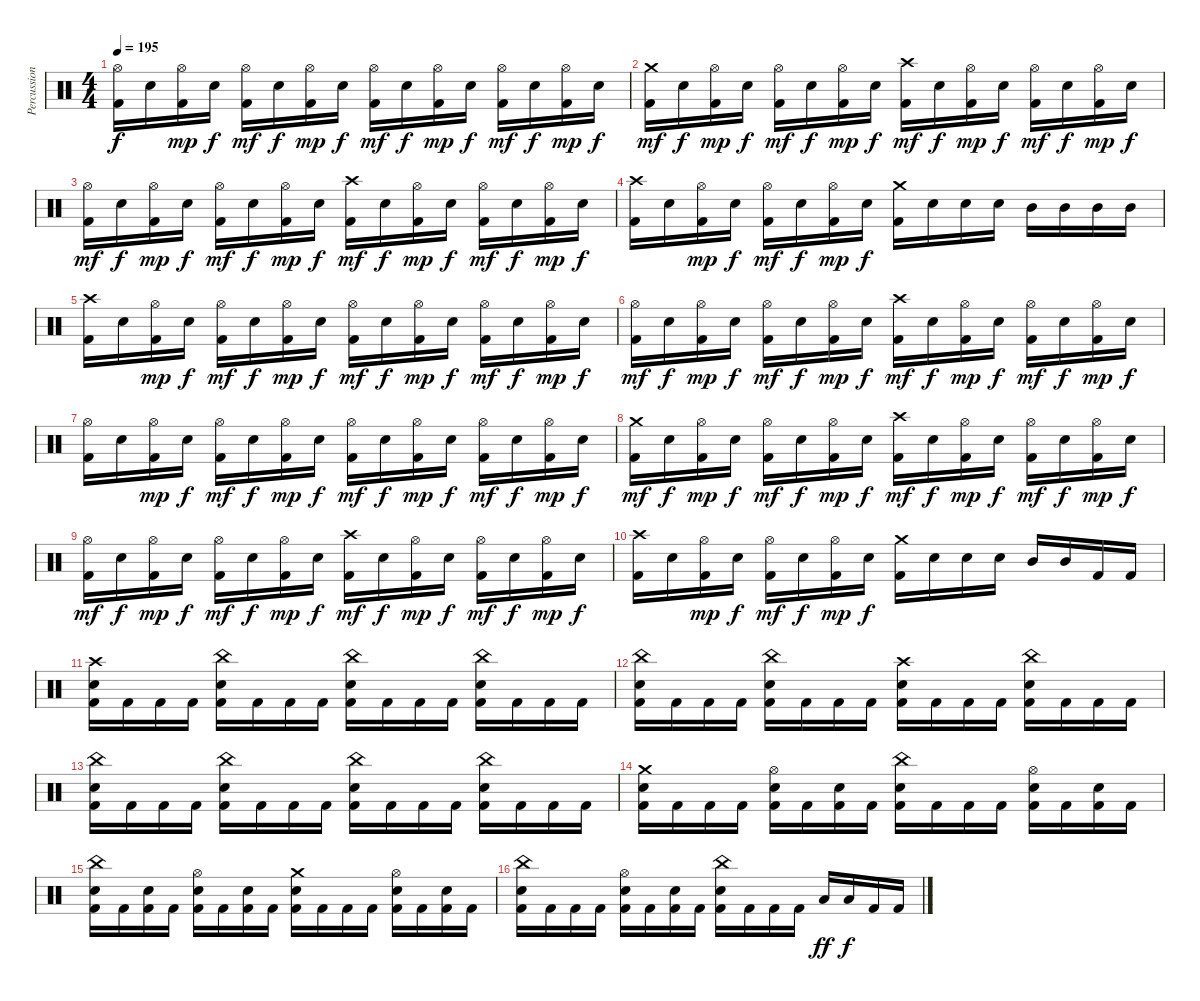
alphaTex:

\track ("Percussion" "Percussion") {instrument percussion}
\staff {score}
\articulation defaults
\ts (4 4)
\tempo 195
\clef neutral
\ks c
("Hi-Hat (open)" "Kick (hit) 2").16{dy f} "Snare (hit) 2".16 ("Hi-Hat (open)" "Kick (hit) 2").16{dy mp} "Snare (hit) 2".16{dy f} ("Hi-Hat (open)" "Kick (hit) 2").16{dy mf} "Snare (hit) 2".16{dy f} ("Hi-Hat (open)" "Kick (hit) 2").16{dy mp} "Snare (hit) 2".16{dy f} ("Hi-Hat (open)" "Kick (hit) 2").16{dy mf} "Snare (hit) 2".16{dy f} ("Hi-Hat (open)" "Kick (hit) 2").16{dy mp} "Snare (hit) 2".16{dy f} ("Hi-Hat (open)" "Kick (hit) 2").16{dy mf} "Snare (hit) 2".16{dy f} ("Hi-Hat (open)" "Kick (hit) 2").16{dy mp} "Snare (hit) 2".16{dy f} |
("Crash medium (hit)" "Kick (hit) 2").16{dy mf} "Snare (hit) 2".16{dy f} ("Hi-Hat (open)" "Kick (hit) 2").16{dy mp} "Snare (hit) 2".16{dy f} ("Hi-Hat (open)" "Kick (hit) 2").16{dy mf} "Snare (hit) 2".16{dy f} ("Hi-Hat (open)" "Kick (hit) 2").16{dy mp} "Snare (hit) 2".16{dy f} ("Crash high (hit)" "Kick (hit) 2").16{dy mf} "Snare (hit) 2".16{dy f} ("Hi-Hat (open)" "Kick (hit) 2").16{dy mp} "Snare (hit) 2".16{dy f} ("Hi-Hat (open)" "Kick (hit) 2").16{dy mf} "Snare (hit) 2".16{dy f} ("Hi-Hat (open)" "Kick (hit) 2").16{dy mp} "Snare (hit) 2".16{dy f} |
("Hi-Hat (open)" "Kick (hit) 2").16{dy mf} "Snare (hit) 2".16{dy f} ("Hi-Hat (open)" "Kick (hit) 2").16{dy mp} "Snare (hit) 2".16{dy f} ("Hi-Hat (open)" "Kick (hit) 2").16{dy mf} "Snare (hit) 2".16{dy f} ("Hi-Hat (open)" "Kick (hit) 2").16{dy mp} "Snare (hit) 2".16{dy f} ("Crash high (hit)" "Kick (hit) 2").16{dy mf} "Snare (hit) 2".16{dy f} ("Hi-Hat (open)" "Kick (hit) 2").16{dy mp} "Snare (hit) 2".16{dy f} ("Hi-Hat (open)" "Kick (hit) 2").16{dy mf} "Snare (hit) 2".16{dy f} ("Hi-Hat (open)" "Kick (hit) 2").16{dy mp} "Snare (hit) 2".16{dy f} |
("Crash high (hit)" "Kick (hit) 2").16 "Snare (hit) 2".16 ("Hi-Hat (open)" "Kick (hit) 2").16{dy mp} "Snare (hit) 2".16{dy f} ("Hi-Hat (open)" "Kick (hit) 2").16{dy mf} "Snare (hit) 2".16{dy f} ("Hi-Hat (open)" "Kick (hit) 2").16{dy mp} "Snare (hit) 2".16{dy f} ("Crash medium (hit)" "Kick (hit) 2").16 "Snare (hit) 2".16 "Snare (hit) 2".16 "Snare (hit) 2".16 "Mid Tom (hit)".16 "Mid Tom (hit)".16 "Mid Tom (hit)".16 "Mid Tom (hit)".16 |
("Crash high (hit)" "Kick (hit) 2").16 "Snare (hit) 2".16 ("Hi-Hat (open)" "Kick (hit) 2").16{dy mp} "Snare (hit) 2".16{dy f} ("Hi-Hat (open)" "Kick (hit) 2").16{dy mf} "Snare (hit) 2".16{dy f} ("Hi-Hat (open)" "Kick (hit) 2").16{dy mp} "Snare (hit) 2".16{dy f} ("Hi-Hat (open)" "Kick (hit) 2").16{dy mf} "Snare (hit) 2".16{dy f} ("Hi-Hat (open)" "Kick (hit) 2").16{dy mp} "Snare (hit) 2".16{dy f} ("Hi-Hat (open)" "Kick (hit) 2").16{dy mf} "Snare (hit) 2".16{dy f} ("Hi-Hat (open)" "Kick (hit) 2").16{dy mp} "Snare (hit) 2".16{dy f} |
("Hi-Hat (open)" "Kick (hit) 2").16{dy mf} "Snare (hit) 2".16{dy f} ("Hi-Hat (open)" "Kick (hit) 2").16{dy mp} "Snare (hit) 2".16{dy f} ("Hi-Hat (open)" "Kick (hit) 2").16{dy mf} "Snare (hit) 2".16{dy f} ("Hi-Hat (open)" "Kick (hit) 2").16{dy mp} "Snare (hit) 2".16{dy f} ("Crash high (hit)" "Kick (hit) 2").16{dy mf} "Snare (hit) 2".16{dy f} ("Hi-Hat (open)" "Kick (hit) 2").16{dy mp} "Snare (hit) 2".16{dy f} ("Hi-Hat (open)" "Kick (hit) 2").16{dy mf} "Snare (hit) 2".16{dy f} ("Hi-Hat (open)" "Kick (hit) 2").16{dy mp} "Snare (hit) 2".16{dy f} |
("Hi-Hat (open)" "Kick (hit) 2").16 "Snare (hit) 2".16 ("Hi-Hat (open)" "Kick (hit) 2").16{dy mp} "Snare (hit) 2".16{dy f} ("Hi-Hat (open)" "Kick (hit) 2").16{dy mf} "Snare (hit) 2".16{dy f} ("Hi-Hat (open)" "Kick (hit) 2").16{dy mp} "Snare (hit) 2".16{dy f} ("Hi-Hat (open)" "Kick (hit) 2").16{dy mf} "Snare (hit) 2".16{dy f} ("Hi-Hat (open)" "Kick (hit) 2").16{dy mp} "Snare (hit) 2".16{dy f} ("Hi-Hat (open)" "Kick (hit) 2").16{dy mf} "Snare (hit) 2".16{dy f} ("Hi-Hat (open)" "Kick (hit) 2").16{dy mp} "Snare (hit) 2".16{dy f} |
("Crash medium (hit)" "Kick (hit) 2").16{dy mf} "Snare (hit) 2".16{dy f} ("Hi-Hat (open)" "Kick (hit) 2").16{dy mp} "Snare (hit) 2".16{dy f} ("Hi-Hat (open)" "Kick (hit) 2").16{dy mf} "Snare (hit) 2".16{dy f} ("Hi-Hat (open)" "Kick (hit) 2").16{dy mp} "Snare (hit) 2".16{dy f} ("Crash high (hit)" "Kick (hit) 2").16{dy mf} "Snare (hit) 2".16{dy f} ("Hi-Hat (open)" "Kick (hit) 2").16{dy mp} "Snare (hit) 2".16{dy f} ("Hi-Hat (open)" "Kick (hit) 2").16{dy mf} "Snare (hit) 2".16{dy f} ("Hi-Hat (open)" "Kick (hit) 2").16{dy mp} "Snare (hit) 2".16{dy f} |
("Hi-Hat (open)" "Kick (hit) 2").16{dy mf} "Snare (hit) 2".16{dy f} ("Hi-Hat (open)" "Kick (hit) 2").16{dy mp} "Snare (hit) 2".16{dy f} ("Hi-Hat (open)" "Kick (hit) 2").16{dy mf} "Snare (hit) 2".16{dy f} ("Hi-Hat (open)" "Kick (hit) 2").16{dy mp} "Snare (hit) 2".16{dy f} ("Crash high (hit)" "Kick (hit) 2").16{dy mf} "Snare (hit) 2".16{dy f} ("Hi-Hat (open)" "Kick (hit) 2").16{dy mp} "Snare (hit) 2".16{dy f} ("Hi-Hat (open)" "Kick (hit) 2").16{dy mf} "Snare (hit) 2".16{dy f} ("Hi-Hat (open)" "Kick (hit) 2").16{dy mp} "Snare (hit) 2".16{dy f} |
("Crash high (hit)" "Kick (hit) 2").16 "Snare (hit) 2".16 ("Hi-Hat (open)" "Kick (hit) 2").16{dy mp} "Snare (hit) 2".16{dy f} ("Hi-Hat (open)" "Kick (hit) 2").16{dy mf} "Snare (hit) 2".16{dy f} ("Hi-Hat (open)" "Kick (hit) 2").16{dy mp} "Snare (hit) 2".16{dy f} ("Crash medium (hit)" "Kick (hit) 2").16 "Snare (hit) 2".16 "Snare (hit) 2".16 "Snare (hit) 2".16 "Mid Tom (hit)".16 "Mid Tom (hit)".16 "Kick (hit) 2".16 "Kick (hit) 2".16 |
("Crash high (hit)" "Snare (hit) 2" "Kick (hit) 2").16 "Kick (hit) 2".16 "Kick (hit) 2".16 "Kick (hit) 2".16 ("China (hit)" "Snare (hit) 2" "Kick (hit) 2").16 "Kick (hit) 2".16 "Kick (hit) 2".16 "Kick (hit) 2".16 ("China (hit)" "Snare (hit) 2" "Kick (hit) 2").16 "Kick (hit) 2".16 "Kick (hit) 2".16 "Kick (hit) 2".16 ("China (hit)" "Snare (hit) 2" "Kick (hit) 2").16 "Kick (hit) 2".16 "Kick (hit) 2".16 "Kick (hit) 2".16 |
("China (hit)" "Snare (hit) 2" "Kick (hit) 2").16 "Kick (hit) 2".16 "Kick (hit) 2".16 "Kick (hit) 2".16 ("China (hit)" "Snare (hit) 2" "Kick (hit) 2").16 "Kick (hit) 2".16 "Kick (hit) 2".16 "Kick (hit) 2".16 ("Crash high (hit)" "Snare (hit) 2" "Kick (hit) 2").16 "Kick (hit) 2".16 "Kick (hit) 2".16 "Kick (hit) 2".16 ("China (hit)" "Snare (hit) 2" "Kick (hit) 2").16 "Kick (hit) 2".16 "Kick (hit) 2".16 "Kick (hit) 2".16 |
("China (hit)" "Snare (hit) 2" "Kick (hit) 2").16 "Kick (hit) 2".16 "Kick (hit) 2".16 "Kick (hit) 2".16 ("China (hit)" "Snare (hit) 2" "Kick (hit) 2").16 "Kick (hit) 2".16 "Kick (hit) 2".16 "Kick (hit) 2".16 ("China (hit)" "Snare (hit) 2" "Kick (hit) 2").16 "Kick (hit) 2".16 "Kick (hit) 2".16 "Kick (hit) 2".16 ("China (hit)" "Snare (hit) 2" "Kick (hit) 2").16 "Kick (hit) 2".16 "Kick (hit) 2".16 "Kick (hit) 2".16 |
("Crash medium (hit)" "Snare (hit) 2" "Kick (hit) 2").16 "Kick (hit) 2".16 "Kick (hit) 2".16 "Kick (hit) 2".16 ("Hi-Hat (open)" "Snare (hit) 2" "Kick (hit) 2").16 "Kick (hit) 2".16 ("Snare (hit) 2" "Kick (hit) 2").16 "Kick (hit) 2".16 ("China (hit)" "Snare (hit) 2" "Kick (hit) 2").16 "Kick (hit) 2".16 "Kick (hit) 2".16 "Kick (hit) 2".16 ("Hi-Hat (open)" "Snare (hit) 2" "Kick (hit) 2").16 "Kick (hit) 2".16 ("Snare (hit) 2" "Kick (hit) 2").16 "Kick (hit) 2".16 |
("China (hit)" "Snare (hit) 2" "Kick (hit) 2").16 "Kick (hit) 2".16 ("Snare (hit) 2" "Kick (hit) 2").16 "Kick (hit) 2".16 ("Hi-Hat (open)" "Snare (hit) 2" "Kick (hit) 2").16 "Kick (hit) 2".16 ("Snare (hit) 2" "Kick (hit) 2").16 "Kick (hit) 2".16 ("Crash medium (hit)" "Snare (hit) 2" "Kick (hit) 2").16 "Kick (hit) 2".16 "Kick (hit) 2".16 "Kick (hit) 2".16 ("Hi-Hat (open)" "Snare (hit) 2" "Kick (hit) 2").16 "Kick (hit) 2".16 ("Snare (hit) 2" "Kick (hit) 2").16 "Kick (hit) 2".16 |
("China (hit)" "Snare (hit) 2" "Kick (hit) 2").16 "Kick (hit) 2".16 "Kick (hit) 2".16 "Kick (hit) 2".16 ("Hi-Hat (open)" "Snare (hit) 2" "Kick (hit) 2").16 "Kick (hit) 2".16 ("Snare (hit) 2" "Kick (hit) 2").16 "Kick (hit) 2".16 ("China (hit)" "Snare (hit) 2" "Kick (hit) 2").16 "Kick (hit) 2".16 "Kick (hit) 2".16 "Kick (hit) 2".16 "Low Tom (hit)".16{dy ff} "Low Tom (hit)".16{dy f} "Kick (hit) 2".16 "Kick (hit) 2".16
